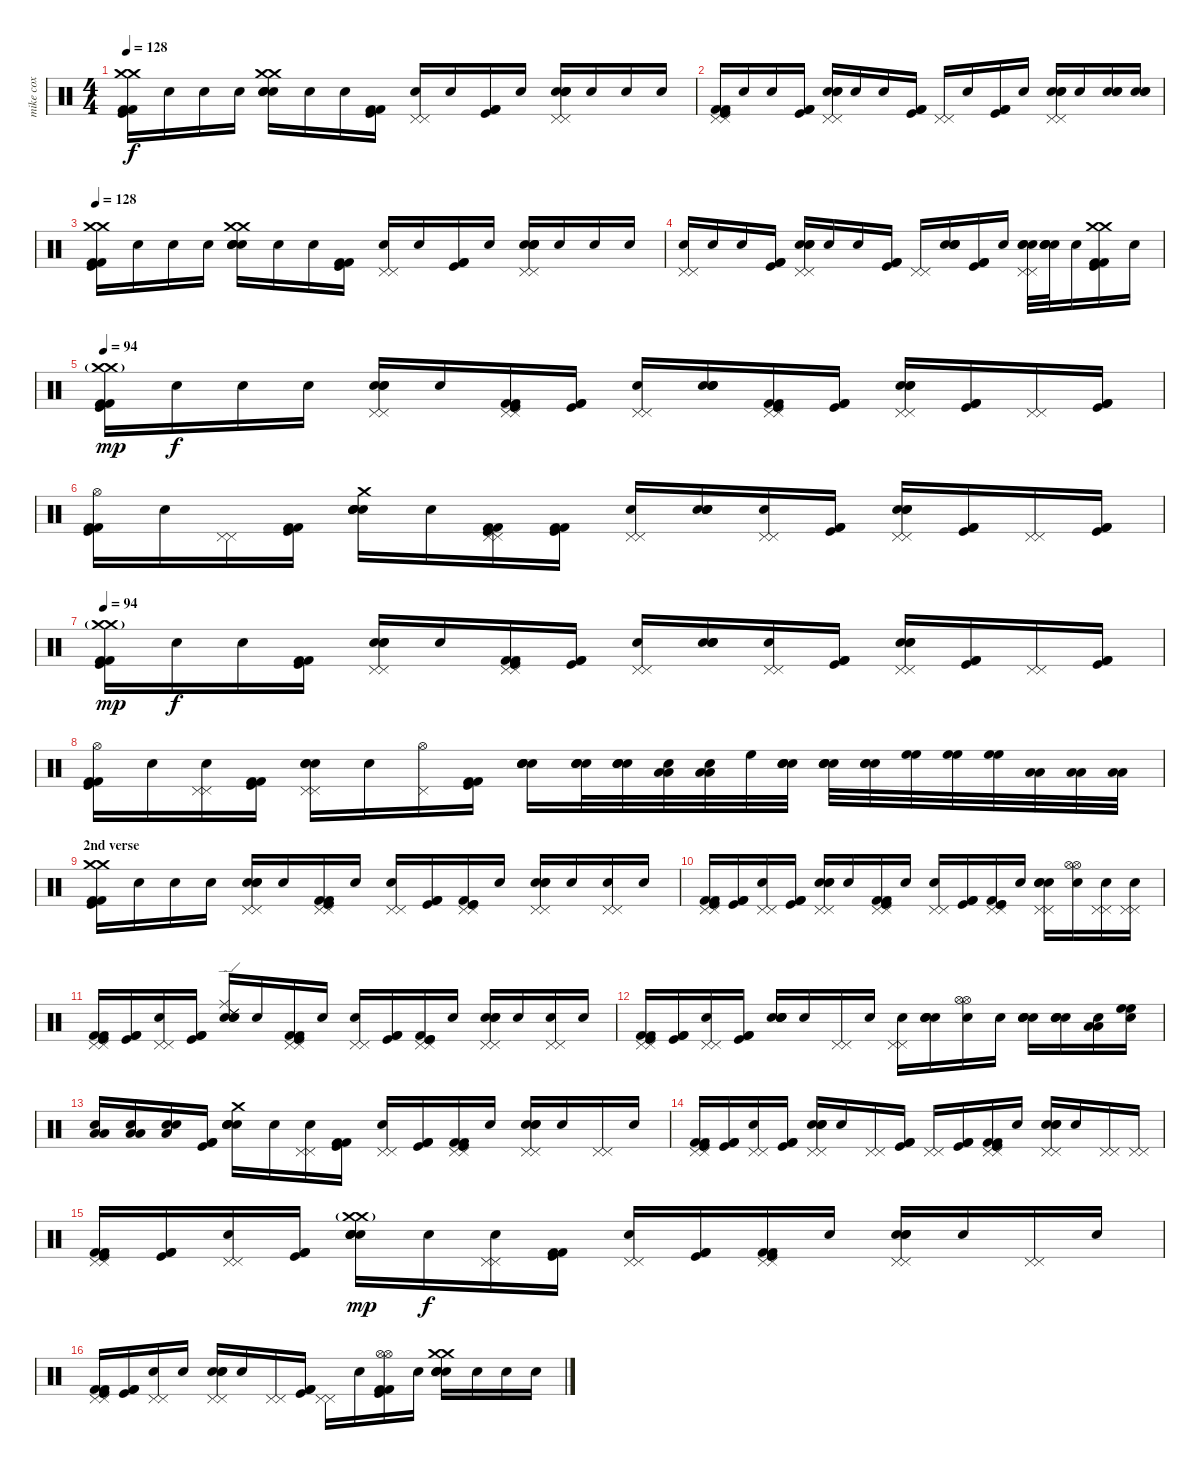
\track ("mike cox" "mike cox") {instrument percussion}
\staff {score}
\articulation defaults
\ts (4 4)
\tempo 128
\clef neutral
\ks c
("Crash medium (hit)" "Crash medium (hit)" "Kick (hit)" "Kick (hit) 2" "Kick (hit) 2").16{dy f} "Snare (hit)".16 "Snare (hit)".16 "Snare (hit)".16 ("Crash medium (hit)" "Crash medium (hit)" "Electric Snare (hit)" "Electric Snare (hit)" "Snare (hit) 2" "Snare (hit)").16 "Snare (hit)".16 "Snare (hit)".16 ("Kick (hit)" "Kick (hit) 2" "Kick (hit) 2").16 ("Pedal Hi-Hat (hit)" "Pedal Hi-Hat (hit)" "Snare (hit)").16 "Snare (hit)".16 ("Kick (hit)" "Kick (hit) 2" "Kick (hit) 2").16 "Snare (hit)".16 ("Pedal Hi-Hat (hit)" "Pedal Hi-Hat (hit)" "Electric Snare (hit)" "Electric Snare (hit)" "Snare (hit) 2" "Snare (hit)").16 "Snare (hit)".16 "Snare (hit)".16 "Snare (hit)".16 |
("Pedal Hi-Hat (hit)" "Pedal Hi-Hat (hit)" "Kick (hit)" "Kick (hit) 2" "Kick (hit) 2").16 "Snare (hit)".16 "Snare (hit)".16 ("Kick (hit)" "Kick (hit) 2" "Kick (hit) 2").16 ("Pedal Hi-Hat (hit)" "Pedal Hi-Hat (hit)" "Electric Snare (hit)" "Electric Snare (hit)" "Snare (hit) 2").16 "Snare (hit)".16 "Snare (hit)".16 ("Kick (hit)" "Kick (hit) 2" "Kick (hit) 2").16 ("Pedal Hi-Hat (hit)" "Pedal Hi-Hat (hit)").16 "Snare (hit)".16 ("Kick (hit)" "Kick (hit) 2" "Kick (hit) 2").16 "Snare (hit)".16 ("Pedal Hi-Hat (hit)" "Pedal Hi-Hat (hit)" "Electric Snare (hit)" "Electric Snare (hit)" "Snare (hit) 2").16 "Snare (hit)".16 ("Electric Snare (hit)" "Electric Snare (hit)" "Snare (hit) 2").16 ("Electric Snare (hit)" "Electric Snare (hit)" "Snare (hit) 2").16 |
\tempo 128
("Crash medium (hit)" "Crash medium (hit)" "Kick (hit)" "Kick (hit) 2" "Kick (hit) 2").16 "Snare (hit)".16 "Snare (hit)".16 "Snare (hit)".16 ("Crash medium (hit)" "Crash medium (hit)" "Electric Snare (hit)" "Electric Snare (hit)" "Snare (hit) 2" "Snare (hit)").16 "Snare (hit)".16 "Snare (hit)".16 ("Kick (hit)" "Kick (hit) 2" "Kick (hit) 2").16 ("Pedal Hi-Hat (hit)" "Pedal Hi-Hat (hit)" "Snare (hit)").16 "Snare (hit)".16 ("Kick (hit)" "Kick (hit) 2" "Kick (hit) 2").16 "Snare (hit)".16 ("Pedal Hi-Hat (hit)" "Pedal Hi-Hat (hit)" "Electric Snare (hit)" "Electric Snare (hit)" "Snare (hit) 2" "Snare (hit)").16 "Snare (hit)".16 "Snare (hit)".16 "Snare (hit)".16 |
("Pedal Hi-Hat (hit)" "Pedal Hi-Hat (hit)" "Snare (hit)").16 "Snare (hit)".16 "Snare (hit)".16 ("Kick (hit)" "Kick (hit) 2" "Kick (hit) 2").16 ("Pedal Hi-Hat (hit)" "Pedal Hi-Hat (hit)" "Electric Snare (hit)" "Electric Snare (hit)" "Snare (hit) 2").16 "Snare (hit)".16 "Snare (hit)".16 ("Kick (hit)" "Kick (hit) 2" "Kick (hit) 2").16 ("Pedal Hi-Hat (hit)" "Pedal Hi-Hat (hit)").16 ("Electric Snare (hit)" "Electric Snare (hit)" "Snare (hit) 2" "Snare (hit)").16 ("Kick (hit)" "Kick (hit) 2" "Kick (hit) 2").16 "Snare (hit)".16 ("Pedal Hi-Hat (hit)" "Pedal Hi-Hat (hit)" "Electric Snare (hit)" "Electric Snare (hit)" "Snare (hit) 2").32 ("Electric Snare (hit)" "Electric Snare (hit)" "Snare (hit) 2" "Snare (hit)").32 "Snare (hit)".16 ("Crash medium (hit)" "Crash medium (hit)" "Kick (hit)" "Kick (hit) 2" "Kick (hit) 2").16 "Snare (hit)".16 |
\tempo 94
("Crash medium (hit)"{g} "Crash medium (hit)"{g} "Kick (hit)" "Kick (hit) 2" "Kick (hit) 2").16{dy mp} "Snare (hit)".16{dy f} "Snare (hit)".16 "Snare (hit)".16 ("Pedal Hi-Hat (hit)" "Electric Snare (hit)" "Electric Snare (hit)" "Snare (hit) 2" "Pedal Hi-Hat (hit)").16 "Snare (hit)".16 ("Pedal Hi-Hat (hit)" "Pedal Hi-Hat (hit)" "Kick (hit)" "Kick (hit) 2" "Kick (hit) 2").16 ("Kick (hit)" "Kick (hit) 2" "Kick (hit) 2").16 ("Pedal Hi-Hat (hit)" "Pedal Hi-Hat (hit)" "Snare (hit)").16 ("Electric Snare (hit)" "Electric Snare (hit)" "Snare (hit) 2" "Snare (hit)").16 ("Pedal Hi-Hat (hit)" "Pedal Hi-Hat (hit)" "Kick (hit)" "Kick (hit) 2" "Kick (hit) 2").16 ("Kick (hit)" "Kick (hit) 2" "Kick (hit) 2").16 ("Pedal Hi-Hat (hit)" "Electric Snare (hit)" "Electric Snare (hit)" "Snare (hit) 2" "Pedal Hi-Hat (hit)").16 ("Kick (hit)" "Kick (hit) 2" "Kick (hit) 2").16 ("Pedal Hi-Hat (hit)" "Pedal Hi-Hat (hit)").16 ("Kick (hit)" "Kick (hit) 2" "Kick (hit) 2").16 |
("Hi-Hat (open)" "Kick (hit)" "Kick (hit) 2" "Kick (hit) 2").16 "Snare (hit)".16 ("Pedal Hi-Hat (hit)" "Pedal Hi-Hat (hit)").16 ("Kick (hit)" "Kick (hit) 2" "Kick (hit) 2").16 ("Crash medium (hit)" "Electric Snare (hit)" "Electric Snare (hit)" "Snare (hit) 2" "Snare (hit)").16 "Snare (hit)".16 ("Pedal Hi-Hat (hit)" "Pedal Hi-Hat (hit)" "Kick (hit)" "Kick (hit) 2" "Kick (hit) 2").16 ("Kick (hit)" "Kick (hit) 2" "Kick (hit) 2").16 ("Pedal Hi-Hat (hit)" "Pedal Hi-Hat (hit)" "Snare (hit)").16 ("Electric Snare (hit)" "Electric Snare (hit)" "Snare (hit) 2" "Snare (hit)").16 ("Pedal Hi-Hat (hit)" "Pedal Hi-Hat (hit)" "Snare (hit)").16 ("Kick (hit)" "Kick (hit) 2" "Kick (hit) 2").16 ("Pedal Hi-Hat (hit)" "Electric Snare (hit)" "Electric Snare (hit)" "Snare (hit) 2" "Pedal Hi-Hat (hit)").16 ("Kick (hit)" "Kick (hit) 2" "Kick (hit) 2").16 ("Pedal Hi-Hat (hit)" "Pedal Hi-Hat (hit)").16 ("Kick (hit)" "Kick (hit) 2" "Kick (hit) 2").16 |
\tempo 94
("Crash medium (hit)"{g} "Crash medium (hit)"{g} "Kick (hit)" "Kick (hit) 2" "Kick (hit) 2").16{dy mp} "Snare (hit)".16{dy f} "Snare (hit)".16 ("Kick (hit)" "Kick (hit) 2" "Kick (hit) 2").16 ("Pedal Hi-Hat (hit)" "Electric Snare (hit)" "Electric Snare (hit)" "Snare (hit) 2" "Pedal Hi-Hat (hit)").16 "Snare (hit)".16 ("Pedal Hi-Hat (hit)" "Pedal Hi-Hat (hit)" "Kick (hit)" "Kick (hit) 2" "Kick (hit) 2").16 ("Kick (hit)" "Kick (hit) 2" "Kick (hit) 2").16 ("Pedal Hi-Hat (hit)" "Pedal Hi-Hat (hit)" "Snare (hit)").16 ("Electric Snare (hit)" "Electric Snare (hit)" "Snare (hit) 2" "Snare (hit)").16 ("Pedal Hi-Hat (hit)" "Pedal Hi-Hat (hit)" "Snare (hit)").16 ("Kick (hit)" "Kick (hit) 2" "Kick (hit) 2").16 ("Pedal Hi-Hat (hit)" "Electric Snare (hit)" "Electric Snare (hit)" "Snare (hit) 2" "Pedal Hi-Hat (hit)").16 ("Kick (hit)" "Kick (hit) 2" "Kick (hit) 2").16 ("Pedal Hi-Hat (hit)" "Pedal Hi-Hat (hit)").16 ("Kick (hit)" "Kick (hit) 2" "Kick (hit) 2").16 |
("Hi-Hat (open)" "Kick (hit)" "Kick (hit) 2" "Kick (hit) 2").16 "Snare (hit)".16 ("Pedal Hi-Hat (hit)" "Pedal Hi-Hat (hit)" "Snare (hit)").16 ("Kick (hit)" "Kick (hit) 2" "Kick (hit) 2").16 ("Pedal Hi-Hat (hit)" "Electric Snare (hit)" "Electric Snare (hit)" "Snare (hit) 2" "Pedal Hi-Hat (hit)").16 "Snare (hit)".16 ("Hi-Hat (open)" "Pedal Hi-Hat (hit)").16 ("Kick (hit)" "Kick (hit) 2" "Kick (hit) 2").16 ("Electric Snare (hit)" "Electric Snare (hit)" "Snare (hit) 2" "Snare (hit)").16 ("Electric Snare (hit)" "Electric Snare (hit)" "Snare (hit) 2" "Snare (hit)").32 ("Electric Snare (hit)" "Electric Snare (hit)" "Snare (hit) 2" "Snare (hit)").32 ("Low Tom (hit)" "Low Tom (hit)" "Snare (hit)").32 ("Low Tom (hit)" "Low Tom (hit)" "Snare (hit)").32 "High Floor Tom (hit)".32 ("Electric Snare (hit)" "Electric Snare (hit)" "Snare (hit) 2" "Snare (hit)").32 ("Electric Snare (hit)" "Electric Snare (hit)" "Snare (hit) 2" "Snare (hit)").32 ("Electric Snare (hit)" "Electric Snare (hit)" "Snare (hit) 2").32 ("High Floor Tom (hit)" "High Floor Tom (hit)").32 ("High Floor Tom (hit)" "High Floor Tom (hit)").32 ("High Floor Tom (hit)" "High Floor Tom (hit)").32 ("Low Floor Tom (hit)" "Low Floor Tom (hit)").32 ("Low Floor Tom (hit)" "Low Floor Tom (hit)").32 ("Low Floor Tom (hit)" "Low Floor Tom (hit)").32 |
\section ("" "2nd verse")
("Crash medium (hit)" "Crash medium (hit)" "Kick (hit)" "Kick (hit) 2" "Kick (hit) 2").16 "Snare (hit)".16 "Snare (hit)".16 "Snare (hit)".16 ("Electric Snare (hit)" "Electric Snare (hit)" "Snare (hit) 2" "Pedal Hi-Hat (hit)" "Pedal Hi-Hat (hit)").16 "Snare (hit)".16 ("Pedal Hi-Hat (hit)" "Pedal Hi-Hat (hit)" "Kick (hit)" "Kick (hit) 2" "Kick (hit) 2").16 "Snare (hit)".16 ("Pedal Hi-Hat (hit)" "Pedal Hi-Hat (hit)" "Snare (hit)").16 ("Kick (hit)" "Kick (hit) 2" "Kick (hit) 2").16 ("Pedal Hi-Hat (hit)" "Pedal Hi-Hat (hit)" "Kick (hit)" "Kick (hit)" "Kick (hit) 2").16 "Snare (hit)".16 ("Electric Snare (hit)" "Electric Snare (hit)" "Snare (hit) 2" "Pedal Hi-Hat (hit)" "Pedal Hi-Hat (hit)").16 "Snare (hit)".16 ("Pedal Hi-Hat (hit)" "Pedal Hi-Hat (hit)" "Snare (hit)").16 "Snare (hit)".16 |
("Pedal Hi-Hat (hit)" "Pedal Hi-Hat (hit)" "Kick (hit)" "Kick (hit) 2" "Kick (hit) 2").16 ("Kick (hit)" "Kick (hit) 2" "Kick (hit) 2").16 ("Pedal Hi-Hat (hit)" "Pedal Hi-Hat (hit)" "Snare (hit)").16 ("Kick (hit)" "Kick (hit) 2" "Kick (hit) 2").16 ("Electric Snare (hit)" "Electric Snare (hit)" "Snare (hit) 2" "Pedal Hi-Hat (hit)" "Pedal Hi-Hat (hit)").16 "Snare (hit)".16 ("Pedal Hi-Hat (hit)" "Pedal Hi-Hat (hit)" "Kick (hit)" "Kick (hit) 2" "Kick (hit) 2").16 "Snare (hit)".16 ("Pedal Hi-Hat (hit)" "Pedal Hi-Hat (hit)" "Snare (hit)").16 ("Kick (hit)" "Kick (hit) 2" "Kick (hit) 2").16 ("Pedal Hi-Hat (hit)" "Pedal Hi-Hat (hit)" "Kick (hit)" "Kick (hit)" "Kick (hit) 2").16 "Snare (hit)".16 ("Electric Snare (hit)" "Electric Snare (hit)" "Snare (hit) 2" "Pedal Hi-Hat (hit)" "Pedal Hi-Hat (hit)").16 ("Hi-Hat (open)" "Hi-Hat (open)" "Snare (hit)").16 ("Pedal Hi-Hat (hit)" "Pedal Hi-Hat (hit)" "Snare (hit)").16 ("Pedal Hi-Hat (hit)" "Pedal Hi-Hat (hit)" "Snare (hit)").16 |
("Pedal Hi-Hat (hit)" "Pedal Hi-Hat (hit)" "Kick (hit)" "Kick (hit) 2" "Kick (hit) 2").16 ("Kick (hit)" "Kick (hit) 2" "Kick (hit) 2").16 ("Pedal Hi-Hat (hit)" "Pedal Hi-Hat (hit)" "Snare (hit)").16 ("Kick (hit)" "Kick (hit) 2" "Kick (hit) 2").16 ("Electric Snare (hit)" "Electric Snare (hit)" "Snare (hit) 2" "Ride (middle)" "Ride (edge) 2" "Ride (edge) 2").16 "Snare (hit)".16 ("Pedal Hi-Hat (hit)" "Pedal Hi-Hat (hit)" "Kick (hit)" "Kick (hit) 2" "Kick (hit) 2").16 "Snare (hit)".16 ("Pedal Hi-Hat (hit)" "Pedal Hi-Hat (hit)" "Snare (hit)").16 ("Kick (hit)" "Kick (hit) 2" "Kick (hit) 2").16 ("Pedal Hi-Hat (hit)" "Pedal Hi-Hat (hit)" "Kick (hit)" "Kick (hit)" "Kick (hit) 2").16 "Snare (hit)".16 ("Electric Snare (hit)" "Electric Snare (hit)" "Snare (hit) 2" "Pedal Hi-Hat (hit)" "Pedal Hi-Hat (hit)").16 "Snare (hit)".16 ("Pedal Hi-Hat (hit)" "Pedal Hi-Hat (hit)" "Snare (hit)").16 "Snare (hit)".16 |
("Pedal Hi-Hat (hit)" "Pedal Hi-Hat (hit)" "Kick (hit)" "Kick (hit) 2" "Kick (hit) 2").16 ("Kick (hit)" "Kick (hit) 2" "Kick (hit) 2").16 ("Pedal Hi-Hat (hit)" "Pedal Hi-Hat (hit)" "Snare (hit)").16 ("Kick (hit)" "Kick (hit) 2" "Kick (hit) 2").16 ("Electric Snare (hit)" "Electric Snare (hit)" "Snare (hit) 2" "Snare (hit)").16 "Snare (hit)".16 ("Pedal Hi-Hat (hit)" "Pedal Hi-Hat (hit)").16 "Snare (hit)".16 ("Pedal Hi-Hat (hit)" "Pedal Hi-Hat (hit)" "Snare (hit)").16 ("Electric Snare (hit)" "Electric Snare (hit)" "Snare (hit) 2" "Snare (hit)").16 ("Hi-Hat (open)" "Hi-Hat (open)" "Snare (hit)").16 "Snare (hit)".16 ("Electric Snare (hit)" "Electric Snare (hit)" "Snare (hit) 2" "Snare (hit)").16 ("Electric Snare (hit)" "Electric Snare (hit)" "Snare (hit) 2" "Snare (hit)").16 ("Low Tom (hit)" "Low Tom (hit)" "Snare (hit)").16 ("High Floor Tom (hit)" "High Floor Tom (hit)" "Snare (hit)").16 |
("Low Floor Tom (hit)" "Low Floor Tom (hit)" "Snare (hit)").16 ("Low Floor Tom (hit)" "Low Floor Tom (hit)" "Snare (hit)").16 ("Low Floor Tom (hit)" "Snare (hit)" "Snare (hit)").16 ("Kick (hit)" "Kick (hit) 2" "Kick (hit) 2").16 ("Crash medium (hit)" "Electric Snare (hit)" "Electric Snare (hit)" "Snare (hit) 2" "Snare (hit)").16 "Snare (hit)".16 ("Pedal Hi-Hat (hit)" "Pedal Hi-Hat (hit)" "Snare (hit)").16 ("Kick (hit) 2" "Kick (hit)" "Kick (hit) 2").16 ("Pedal Hi-Hat (hit)" "Pedal Hi-Hat (hit)" "Snare (hit)").16 ("Kick (hit)" "Kick (hit) 2" "Kick (hit) 2").16 ("Pedal Hi-Hat (hit)" "Pedal Hi-Hat (hit)" "Kick (hit)" "Kick (hit) 2" "Kick (hit) 2").16 "Snare (hit)".16 ("Pedal Hi-Hat (hit)" "Electric Snare (hit)" "Electric Snare (hit)" "Snare (hit) 2" "Pedal Hi-Hat (hit)").16 "Snare (hit)".16 ("Pedal Hi-Hat (hit)" "Pedal Hi-Hat (hit)").16 "Snare (hit)".16 |
("Pedal Hi-Hat (hit)" "Pedal Hi-Hat (hit)" "Kick (hit)" "Kick (hit) 2" "Kick (hit) 2").16 ("Kick (hit)" "Kick (hit) 2" "Kick (hit) 2").16 ("Pedal Hi-Hat (hit)" "Pedal Hi-Hat (hit)" "Snare (hit)").16 ("Kick (hit)" "Kick (hit) 2" "Kick (hit) 2").16 ("Pedal Hi-Hat (hit)" "Electric Snare (hit)" "Electric Snare (hit)" "Snare (hit) 2" "Pedal Hi-Hat (hit)").16 "Snare (hit)".16 ("Pedal Hi-Hat (hit)" "Pedal Hi-Hat (hit)").16 ("Kick (hit) 2" "Kick (hit)" "Kick (hit) 2").16 ("Pedal Hi-Hat (hit)" "Pedal Hi-Hat (hit)").16 ("Kick (hit)" "Kick (hit) 2" "Kick (hit) 2").16 ("Pedal Hi-Hat (hit)" "Pedal Hi-Hat (hit)" "Kick (hit)" "Kick (hit) 2" "Kick (hit) 2").16 "Snare (hit)".16 ("Pedal Hi-Hat (hit)" "Electric Snare (hit)" "Electric Snare (hit)" "Snare (hit) 2" "Pedal Hi-Hat (hit)").16 "Snare (hit)".16 ("Pedal Hi-Hat (hit)" "Pedal Hi-Hat (hit)").16 ("Pedal Hi-Hat (hit)" "Pedal Hi-Hat (hit)").16 |
("Pedal Hi-Hat (hit)" "Pedal Hi-Hat (hit)" "Kick (hit)" "Kick (hit) 2" "Kick (hit) 2").16 ("Kick (hit)" "Kick (hit) 2" "Kick (hit) 2").16 ("Pedal Hi-Hat (hit)" "Pedal Hi-Hat (hit)" "Snare (hit)").16 ("Kick (hit)" "Kick (hit) 2" "Kick (hit) 2").16 ("Crash medium (hit)"{g} "Electric Snare (hit)" "Electric Snare (hit)" "Snare (hit) 2" "Crash medium (hit)"{g} "Snare (hit)").16{dy mp} "Snare (hit)".16{dy f} ("Pedal Hi-Hat (hit)" "Pedal Hi-Hat (hit)" "Snare (hit)").16 ("Kick (hit) 2" "Kick (hit)" "Kick (hit) 2").16 ("Pedal Hi-Hat (hit)" "Pedal Hi-Hat (hit)" "Snare (hit)").16 ("Kick (hit)" "Kick (hit) 2" "Kick (hit) 2").16 ("Pedal Hi-Hat (hit)" "Pedal Hi-Hat (hit)" "Kick (hit)" "Kick (hit) 2" "Kick (hit) 2").16 "Snare (hit)".16 ("Pedal Hi-Hat (hit)" "Electric Snare (hit)" "Electric Snare (hit)" "Snare (hit) 2" "Pedal Hi-Hat (hit)").16 "Snare (hit)".16 ("Pedal Hi-Hat (hit)" "Pedal Hi-Hat (hit)").16 "Snare (hit)".16 |
("Pedal Hi-Hat (hit)" "Pedal Hi-Hat (hit)" "Kick (hit)" "Kick (hit) 2" "Kick (hit) 2").16 ("Kick (hit)" "Kick (hit) 2" "Kick (hit) 2").16 ("Pedal Hi-Hat (hit)" "Pedal Hi-Hat (hit)" "Snare (hit)").16 "Snare (hit)".16 ("Pedal Hi-Hat (hit)" "Electric Snare (hit)" "Electric Snare (hit)" "Snare (hit) 2" "Pedal Hi-Hat (hit)").16 "Snare (hit)".16 ("Pedal Hi-Hat (hit)" "Pedal Hi-Hat (hit)").16 ("Kick (hit) 2" "Kick (hit)" "Kick (hit) 2").16 ("Pedal Hi-Hat (hit)" "Pedal Hi-Hat (hit)").16 "Snare (hit)".16 ("Hi-Hat (open)" "Hi-Hat (open)" "Kick (hit)" "Kick (hit) 2" "Kick (hit) 2").16 "Snare (hit)".16 ("Crash medium (hit)" "Electric Snare (hit)" "Electric Snare (hit)" "Snare (hit) 2" "Crash medium (hit)" "Snare (hit)").16 "Snare (hit)".16 "Snare (hit)".16 "Snare (hit)".16
